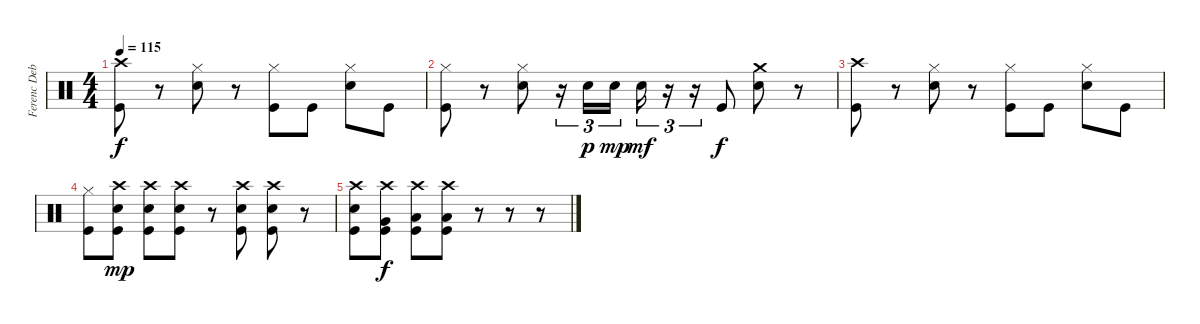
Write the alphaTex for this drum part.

\track ("Ferenc Debreceni \"Ciki\" (Drums)" "Ferenc Deb") {instrument percussion}
\staff {score}
\articulation defaults
\ts (4 4)
\tempo 115
\clef neutral
\ks c
("Crash high (hit)" "Kick (hit)").8{dy f} r.8 ("Hi-Hat (closed)" "Electric Snare (hit)").8 r.8 ("Hi-Hat (closed)" "Kick (hit)").8 "Kick (hit)".8 ("Hi-Hat (closed)" "Electric Snare (hit)").8 "Kick (hit)".8 |
("Hi-Hat (closed)" "Kick (hit)").8 r.8 ("Hi-Hat (closed)" "Electric Snare (hit)").8 r.16{tu (3 2)} "Electric Snare (hit)".16{tu (3 2) dy p} "Electric Snare (hit)".16{tu (3 2) dy mp} "Electric Snare (hit)".16{tu (3 2) dy mf} r.16{tu (3 2)} r.16{tu (3 2)} "Kick (hit)".8{dy f} ("Crash medium (hit)" "Electric Snare (hit)").8 r.8 |
("Crash high (hit)" "Kick (hit)").8 r.8 ("Hi-Hat (closed)" "Electric Snare (hit)").8 r.8 ("Hi-Hat (closed)" "Kick (hit)").8 "Kick (hit)".8 ("Hi-Hat (closed)" "Electric Snare (hit)").8 "Kick (hit)".8 |
("Hi-Hat (closed)" "Kick (hit)").8 ("Crash high (hit)" "Electric Snare (hit)" "Kick (hit)").8{dy mp} ("Crash high (hit)" "Electric Snare (hit)" "Kick (hit)").8 ("Crash high (hit)" "Electric Snare (hit)" "Kick (hit)").8 r.8 ("Crash high (hit)" "Electric Snare (hit)" "Kick (hit)").8 ("Crash high (hit)" "Electric Snare (hit)" "Kick (hit)").8 r.8 |
("Crash high (hit)" "Electric Snare (hit)" "Kick (hit)").8 ("Crash high (hit)" "Very Low Tom (hit)" "Kick (hit)").8{dy f} ("Crash high (hit)" "Low Tom (hit)" "Kick (hit)").8 ("Crash high (hit)" "Low Tom (hit)" "Kick (hit)").8 r.8 r.8 r.8
